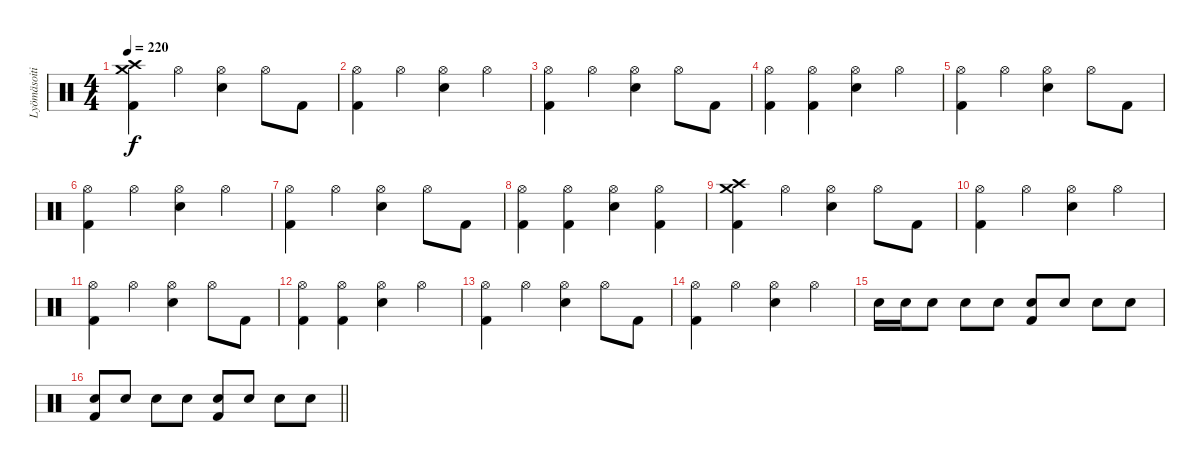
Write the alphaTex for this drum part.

\track ("Lyömäsoitin" "Lyömäsoiti") {instrument percussion}
\staff {score}
\articulation defaults
\ts (4 4)
\section ("" "")
\tempo 220
\clef neutral
\ks c
("Crash medium (hit)" "Crash high (hit)" "Kick (hit) 2").4{dy f} "Hi-Hat (open)".4 ("Hi-Hat (open)" "Electric Snare (hit)").4 "Hi-Hat (open)".8 "Kick (hit) 2".8 |
("Hi-Hat (open)" "Kick (hit) 2").4 "Hi-Hat (open)".4 ("Hi-Hat (open)" "Electric Snare (hit)").4 "Hi-Hat (open)".4 |
("Hi-Hat (open)" "Kick (hit) 2").4 "Hi-Hat (open)".4 ("Hi-Hat (open)" "Electric Snare (hit)").4 "Hi-Hat (open)".8 "Kick (hit) 2".8 |
("Hi-Hat (open)" "Kick (hit) 2").4 ("Hi-Hat (open)" "Kick (hit) 2").4 ("Hi-Hat (open)" "Electric Snare (hit)").4 "Hi-Hat (open)".4 |
("Hi-Hat (open)" "Kick (hit) 2").4 "Hi-Hat (open)".4 ("Hi-Hat (open)" "Electric Snare (hit)").4 "Hi-Hat (open)".8 "Kick (hit) 2".8 |
("Hi-Hat (open)" "Kick (hit) 2").4 "Hi-Hat (open)".4 ("Hi-Hat (open)" "Electric Snare (hit)").4 "Hi-Hat (open)".4 |
("Hi-Hat (open)" "Kick (hit) 2").4 "Hi-Hat (open)".4 ("Hi-Hat (open)" "Electric Snare (hit)").4 "Hi-Hat (open)".8 "Kick (hit) 2".8 |
("Hi-Hat (open)" "Kick (hit) 2").4 ("Hi-Hat (open)" "Kick (hit) 2").4 ("Hi-Hat (open)" "Electric Snare (hit)").4 ("Hi-Hat (open)" "Kick (hit) 2").4 |
("Crash medium (hit)" "Crash high (hit)" "Kick (hit) 2").4 "Hi-Hat (open)".4 ("Hi-Hat (open)" "Electric Snare (hit)").4 "Hi-Hat (open)".8 "Kick (hit) 2".8 |
("Hi-Hat (open)" "Kick (hit) 2").4 "Hi-Hat (open)".4 ("Hi-Hat (open)" "Electric Snare (hit)").4 "Hi-Hat (open)".4 |
("Hi-Hat (open)" "Kick (hit) 2").4 "Hi-Hat (open)".4 ("Hi-Hat (open)" "Electric Snare (hit)").4 "Hi-Hat (open)".8 "Kick (hit) 2".8 |
("Hi-Hat (open)" "Kick (hit) 2").4 ("Hi-Hat (open)" "Kick (hit) 2").4 ("Hi-Hat (open)" "Electric Snare (hit)").4 "Hi-Hat (open)".4 |
("Hi-Hat (open)" "Kick (hit) 2").4 "Hi-Hat (open)".4 ("Hi-Hat (open)" "Electric Snare (hit)").4 "Hi-Hat (open)".8 "Kick (hit) 2".8 |
("Hi-Hat (open)" "Kick (hit) 2").4 "Hi-Hat (open)".4 ("Hi-Hat (open)" "Electric Snare (hit)").4 "Hi-Hat (open)".4 |
"Electric Snare (hit)".16 "Electric Snare (hit)".16 "Electric Snare (hit)".8 "Electric Snare (hit)".8 "Electric Snare (hit)".8 ("Electric Snare (hit)" "Kick (hit) 2").8 "Electric Snare (hit)".8 "Electric Snare (hit)".8 "Electric Snare (hit)".8 |
\barLineRight lightlight
("Electric Snare (hit)" "Kick (hit) 2").8 "Electric Snare (hit)".8 "Electric Snare (hit)".8 "Electric Snare (hit)".8 ("Electric Snare (hit)" "Kick (hit) 2").8 "Electric Snare (hit)".8 "Electric Snare (hit)".8 "Electric Snare (hit)".8
